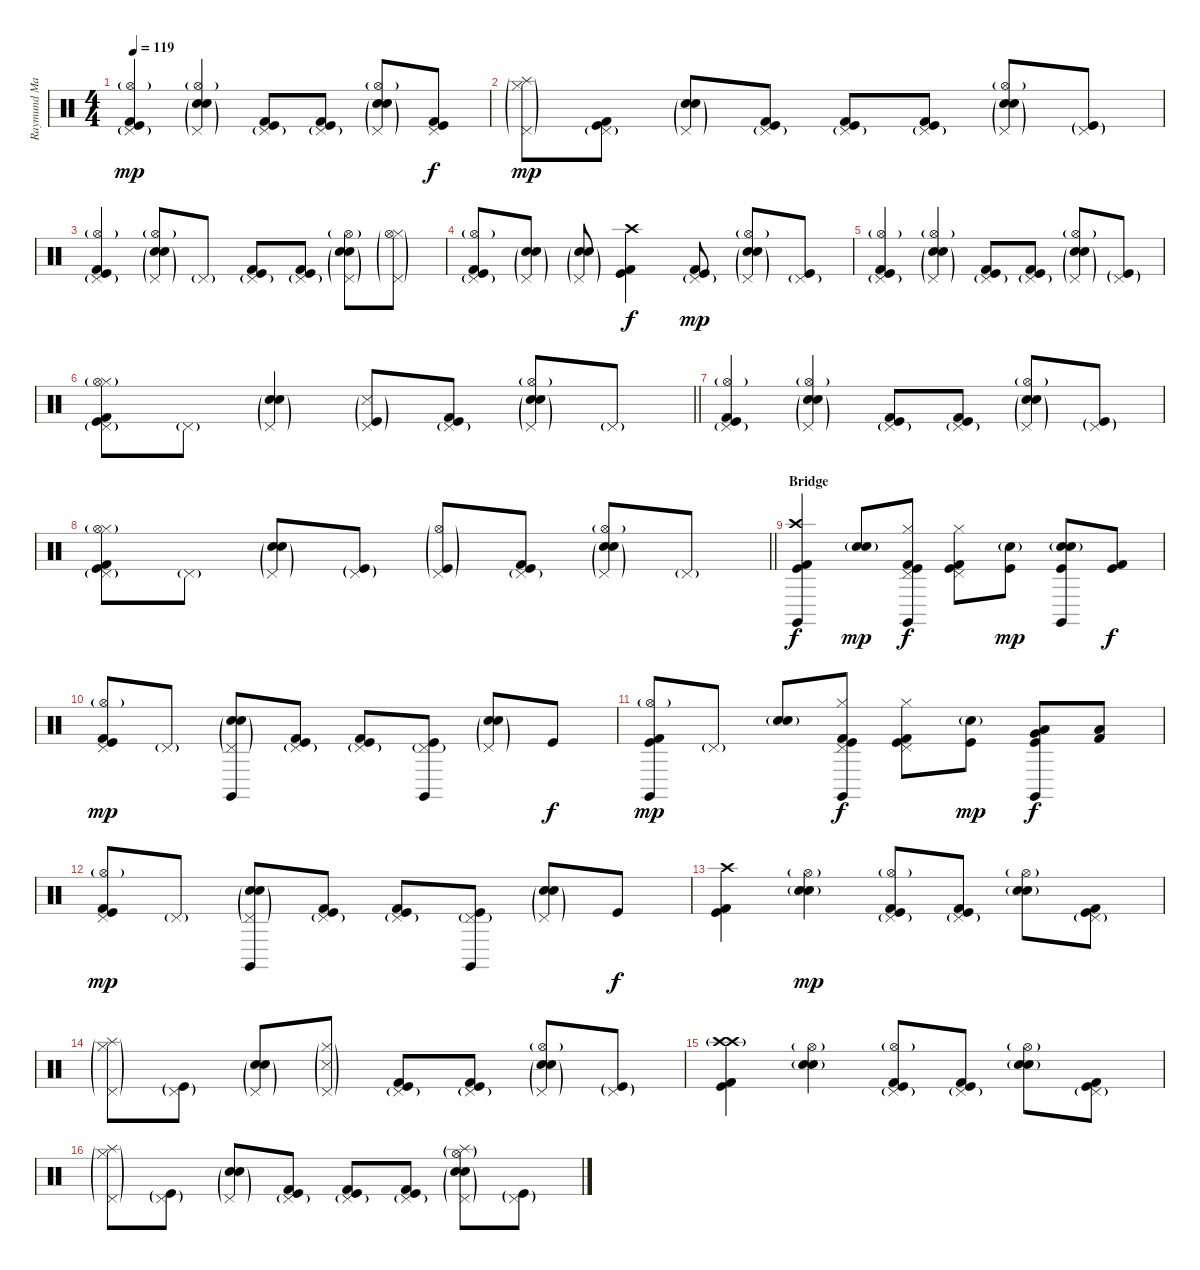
\track ("Raymund Marasigan(Drums)" "Raymund Ma") {instrument percussion}
\staff {score}
\articulation defaults
\ts (4 4)
\tempo 119
\clef neutral
\ks c
("Pedal Hi-Hat (hit)"{g} "Hi-Hat (open)"{g} "Kick (hit) 2" "Kick (hit)").4{dy mp} ("Pedal Hi-Hat (hit)"{g} "Electric Snare (hit)" "Snare (hit) 2"{g} "Hi-Hat (open)"{g}).4 ("Pedal Hi-Hat (hit)"{g} "Kick (hit) 2" "Kick (hit)").8 ("Pedal Hi-Hat (hit)"{g} "Kick (hit) 2" "Kick (hit)").8 ("Pedal Hi-Hat (hit)"{g} "Electric Snare (hit)" "Snare (hit) 2"{g} "Hi-Hat (open)"{g}).8 ("Pedal Hi-Hat (hit)" "Kick (hit) 2" "Kick (hit)").8{dy f} |
("Pedal Hi-Hat (hit)"{g} "Hi-Hat (closed)"{g} "Splash (hit)"{g}).8{dy mp} ("Pedal Hi-Hat (hit)"{g} "Kick (hit) 2" "Kick (hit)").8 ("Pedal Hi-Hat (hit)"{g} "Electric Snare (hit)" "Snare (hit) 2"{g}).8 ("Pedal Hi-Hat (hit)"{g} "Kick (hit) 2" "Kick (hit)").8 ("Pedal Hi-Hat (hit)"{g} "Kick (hit) 2" "Kick (hit)").8 ("Pedal Hi-Hat (hit)"{g} "Kick (hit) 2" "Kick (hit)").8 ("Pedal Hi-Hat (hit)"{g} "Electric Snare (hit)" "Snare (hit) 2"{g} "Hi-Hat (open)"{g}).8 ("Pedal Hi-Hat (hit)"{g} "Kick (hit)"{g}).8 |
("Pedal Hi-Hat (hit)"{g} "Hi-Hat (open)"{g} "Kick (hit) 2" "Kick (hit)").4 ("Pedal Hi-Hat (hit)"{g} "Electric Snare (hit)" "Snare (hit) 2"{g} "Hi-Hat (open)"{g}).8 "Pedal Hi-Hat (hit)"{g}.8 ("Pedal Hi-Hat (hit)"{g} "Kick (hit) 2" "Kick (hit)").8 ("Pedal Hi-Hat (hit)"{g} "Kick (hit) 2" "Kick (hit)").8 ("Pedal Hi-Hat (hit)"{g} "Electric Snare (hit)" "Snare (hit) 2"{g} "Hi-Hat (open)"{g}).8 ("Pedal Hi-Hat (hit)"{g} "Hi-Hat (closed)"{g} "Hi-Hat (open)"{g}).8 |
("Pedal Hi-Hat (hit)"{g} "Kick (hit) 2" "Kick (hit)" "Hi-Hat (open)"{g}).8 ("Electric Snare (hit)" "Snare (hit) 2"{g} "Pedal Hi-Hat (hit)"{g}).8 ("Electric Snare (hit)" "Snare (hit) 2"{g} "Pedal Hi-Hat (hit)"{g}).8 ("Crash high (hit)" "Kick (hit) 2" "Kick (hit)").4{dy f} ("Pedal Hi-Hat (hit)"{g} "Kick (hit) 2" "Kick (hit)").8{dy mp} ("Electric Snare (hit)" "Snare (hit) 2"{g} "Hi-Hat (open)"{g} "Pedal Hi-Hat (hit)"{g}).8 ("Pedal Hi-Hat (hit)"{g} "Kick (hit)").8 |
("Pedal Hi-Hat (hit)"{g} "Hi-Hat (open)"{g} "Kick (hit) 2" "Kick (hit)").4 ("Pedal Hi-Hat (hit)"{g} "Electric Snare (hit)" "Snare (hit) 2"{g} "Hi-Hat (open)"{g}).4 ("Pedal Hi-Hat (hit)"{g} "Kick (hit) 2" "Kick (hit)").8 ("Pedal Hi-Hat (hit)"{g} "Kick (hit) 2" "Kick (hit)").8 ("Pedal Hi-Hat (hit)"{g} "Electric Snare (hit)" "Snare (hit) 2"{g} "Hi-Hat (open)"{g}).8 ("Pedal Hi-Hat (hit)"{g} "Kick (hit)"{g}).8 |
\barLineRight lightlight
("Pedal Hi-Hat (hit)"{g} "Hi-Hat (closed)"{g} "Kick (hit) 2" "Kick (hit)" "Hi-Hat (open)"{g}).8 "Pedal Hi-Hat (hit)"{g}.8 ("Pedal Hi-Hat (hit)"{g} "Electric Snare (hit)" "Snare (hit) 2"{g}).4 ("Pedal Hi-Hat (hit)"{g} "Kick (hit)"{g} "Snare (side stick) 3"{g}).8 ("Pedal Hi-Hat (hit)"{g} "Kick (hit) 2" "Kick (hit)").8 ("Pedal Hi-Hat (hit)"{g} "Electric Snare (hit)" "Snare (hit) 2"{g} "Hi-Hat (open)"{g}).8 "Pedal Hi-Hat (hit)"{g}.8 |
("Pedal Hi-Hat (hit)"{g} "Hi-Hat (open)"{g} "Kick (hit) 2" "Kick (hit)").4 ("Pedal Hi-Hat (hit)"{g} "Electric Snare (hit)" "Snare (hit) 2"{g} "Hi-Hat (open)"{g}).4 ("Pedal Hi-Hat (hit)"{g} "Kick (hit) 2" "Kick (hit)").8 ("Pedal Hi-Hat (hit)"{g} "Kick (hit) 2" "Kick (hit)").8 ("Pedal Hi-Hat (hit)"{g} "Electric Snare (hit)" "Snare (hit) 2"{g} "Hi-Hat (open)"{g}).8 ("Pedal Hi-Hat (hit)"{g} "Kick (hit)"{g}).8 |
\barLineRight lightlight
("Pedal Hi-Hat (hit)"{g} "Hi-Hat (closed)"{g} "Kick (hit) 2" "Kick (hit)" "Hi-Hat (open)"{g}).8 "Pedal Hi-Hat (hit)"{g}.8 ("Pedal Hi-Hat (hit)"{g} "Electric Snare (hit)" "Snare (hit) 2"{g}).8 ("Pedal Hi-Hat (hit)"{g} "Kick (hit)"{g}).8 ("Pedal Hi-Hat (hit)"{g} "Kick (hit)"{g} "Hi-Hat (open)"{g}).8 ("Pedal Hi-Hat (hit)"{g} "Kick (hit) 2" "Kick (hit)").8 ("Pedal Hi-Hat (hit)"{g} "Electric Snare (hit)" "Snare (hit) 2"{g} "Hi-Hat (open)"{g}).8 "Pedal Hi-Hat (hit)"{g}.8 |
\section ("" "Bridge")
("Crash high (hit)" "Kick (hit) 2" "Kick (hit)" "Claves (hit)").4{dy f} ("Electric Snare (hit)" "Snare (hit) 2"{g}).8{dy mp} ("Pedal Hi-Hat (hit)" "Hi-Hat (closed)" "Kick (hit) 2" "Kick (hit)" "Claves (hit)").8{dy f} ("Pedal Hi-Hat (hit)" "Hi-Hat (closed)" "Kick (hit) 2" "Kick (hit)").8 ("Kick (hit)" "Electric Snare (hit)"{g}).8{dy mp} ("Kick (hit)" "Electric Snare (hit)" "Snare (hit) 2"{g} "Claves (hit)").8 ("Kick (hit) 2" "Kick (hit)").8{dy f} |
("Pedal Hi-Hat (hit)" "Kick (hit) 2" "Kick (hit)" "Hi-Hat (open)"{g}).8{dy mp} "Pedal Hi-Hat (hit)"{g}.8 ("Pedal Hi-Hat (hit)"{g} "Electric Snare (hit)" "Snare (hit) 2"{g} "Claves (hit)").8 ("Pedal Hi-Hat (hit)"{g} "Kick (hit) 2" "Kick (hit)").8 ("Pedal Hi-Hat (hit)"{g} "Kick (hit) 2" "Kick (hit)").8 ("Pedal Hi-Hat (hit)"{g} "Kick (hit)" "Claves (hit)").8 ("Pedal Hi-Hat (hit)"{g} "Electric Snare (hit)" "Snare (hit) 2"{g}).8 "Kick (hit)".8{dy f} |
("Hi-Hat (open)"{g} "Kick (hit) 2" "Kick (hit)" "Claves (hit)").8{dy mp} "Pedal Hi-Hat (hit)"{g}.8 ("Electric Snare (hit)" "Snare (hit) 2"{g}).8 ("Pedal Hi-Hat (hit)" "Hi-Hat (closed)" "Kick (hit) 2" "Kick (hit)" "Claves (hit)").8{dy f} ("Pedal Hi-Hat (hit)" "Hi-Hat (closed)" "Kick (hit) 2" "Kick (hit)").8 ("Kick (hit)" "Electric Snare (hit)"{g}).8{dy mp} ("Kick (hit)" "Low Tom (hit)" "Very Low Tom (hit)" "Claves (hit)").8{dy f} ("Kick (hit) 2" "Low Floor Tom (hit)").8 |
("Pedal Hi-Hat (hit)" "Kick (hit) 2" "Kick (hit)" "Hi-Hat (open)"{g}).8{dy mp} "Pedal Hi-Hat (hit)"{g}.8 ("Pedal Hi-Hat (hit)"{g} "Electric Snare (hit)" "Snare (hit) 2"{g} "Claves (hit)").8 ("Pedal Hi-Hat (hit)"{g} "Kick (hit) 2" "Kick (hit)").8 ("Pedal Hi-Hat (hit)"{g} "Kick (hit) 2" "Kick (hit)").8 ("Pedal Hi-Hat (hit)"{g} "Kick (hit)" "Claves (hit)").8 ("Pedal Hi-Hat (hit)"{g} "Electric Snare (hit)" "Snare (hit) 2"{g}).8 "Kick (hit)".8{dy f} |
("Crash high (hit)" "Kick (hit) 2" "Kick (hit)").4 ("Electric Snare (hit)" "Snare (hit) 2"{g} "Hi-Hat (open)"{g}).4{dy mp} ("Pedal Hi-Hat (hit)"{g} "Kick (hit) 2" "Kick (hit)" "Hi-Hat (open)"{g}).8 ("Pedal Hi-Hat (hit)"{g} "Kick (hit) 2" "Kick (hit)").8 ("Electric Snare (hit)" "Snare (hit) 2"{g} "Hi-Hat (open)"{g}).8 ("Pedal Hi-Hat (hit)"{g} "Kick (hit) 2" "Kick (hit)").8 |
("Pedal Hi-Hat (hit)"{g} "Hi-Hat (closed)"{g} "Splash (hit)"{g}).8 ("Pedal Hi-Hat (hit)"{g} "Kick (hit)"{g}).8 ("Pedal Hi-Hat (hit)"{g} "Electric Snare (hit)" "Snare (hit) 2"{g}).8 ("Pedal Hi-Hat (hit)"{g} "Hi-Hat (closed)"{g} "Snare (side stick) 3"{g}).8 ("Pedal Hi-Hat (hit)"{g} "Kick (hit) 2" "Kick (hit)").8 ("Pedal Hi-Hat (hit)"{g} "Kick (hit) 2" "Kick (hit)").8 ("Pedal Hi-Hat (hit)"{g} "Electric Snare (hit)" "Snare (hit) 2"{g} "Hi-Hat (open)"{g}).8 ("Pedal Hi-Hat (hit)"{g} "Kick (hit)"{g}).8 |
("Crash high (hit)"{g} "Crash high (hit)"{g} "Kick (hit) 2" "Kick (hit)").4 ("Electric Snare (hit)" "Snare (hit) 2"{g} "Hi-Hat (open)"{g}).4 ("Pedal Hi-Hat (hit)"{g} "Kick (hit) 2" "Kick (hit)" "Hi-Hat (open)"{g}).8 ("Pedal Hi-Hat (hit)"{g} "Kick (hit) 2" "Kick (hit)").8 ("Electric Snare (hit)" "Snare (hit) 2"{g} "Hi-Hat (open)"{g}).8 ("Pedal Hi-Hat (hit)"{g} "Kick (hit) 2" "Kick (hit)").8 |
("Pedal Hi-Hat (hit)"{g} "Hi-Hat (closed)"{g} "Splash (hit)"{g}).8 ("Pedal Hi-Hat (hit)"{g} "Kick (hit)"{g}).8 ("Pedal Hi-Hat (hit)"{g} "Electric Snare (hit)" "Snare (hit) 2"{g}).8 ("Pedal Hi-Hat (hit)"{g} "Kick (hit) 2" "Kick (hit)").8 ("Pedal Hi-Hat (hit)"{g} "Kick (hit) 2" "Kick (hit)").8 ("Pedal Hi-Hat (hit)"{g} "Kick (hit) 2" "Kick (hit)").8 ("Pedal Hi-Hat (hit)"{g} "Electric Snare (hit)" "Snare (hit) 2"{g} "Hi-Hat (open)"{g} "Splash (hit)"{g}).8 ("Pedal Hi-Hat (hit)"{g} "Kick (hit)"{g}).8
